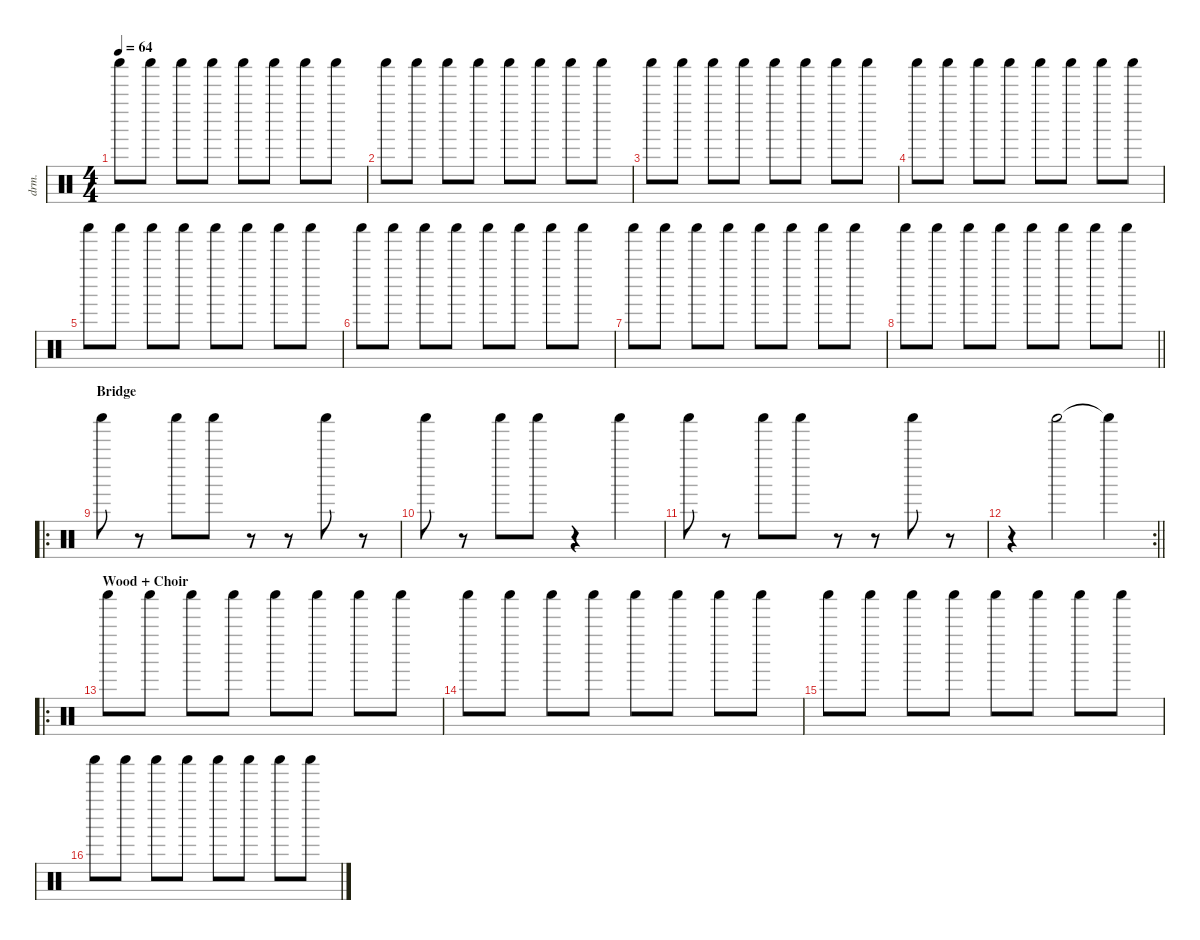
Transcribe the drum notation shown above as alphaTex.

\defaultSystemsLayout 4
\hideDynamics
\bracketExtendMode nobrackets
\track ("Percussions" "drm.") {instrument percussion}
\staff {score}
\articulation defaults
\ts (4 4)
\tempo 64
\clef neutral
\ks c "Shaker (hit)".8{dy f} "Shaker (hit)".8 "Shaker (hit)".8 "Shaker (hit)".8 "Shaker (hit)".8 "Shaker (hit)".8 "Shaker (hit)".8 "Shaker (hit)".8
|
"Shaker (hit)".8 "Shaker (hit)".8 "Shaker (hit)".8 "Shaker (hit)".8 "Shaker (hit)".8 "Shaker (hit)".8 "Shaker (hit)".8 "Shaker (hit)".8 |
"Shaker (hit)".8 "Shaker (hit)".8 "Shaker (hit)".8 "Shaker (hit)".8 "Shaker (hit)".8 "Shaker (hit)".8 "Shaker (hit)".8 "Shaker (hit)".8 |
"Shaker (hit)".8 "Shaker (hit)".8 "Shaker (hit)".8 "Shaker (hit)".8 "Shaker (hit)".8 "Shaker (hit)".8 "Shaker (hit)".8 "Shaker (hit)".8 |
"Shaker (hit)".8 "Shaker (hit)".8 "Shaker (hit)".8 "Shaker (hit)".8 "Shaker (hit)".8 "Shaker (hit)".8 "Shaker (hit)".8 "Shaker (hit)".8 |
"Shaker (hit)".8 "Shaker (hit)".8 "Shaker (hit)".8 "Shaker (hit)".8 "Shaker (hit)".8 "Shaker (hit)".8 "Shaker (hit)".8 "Shaker (hit)".8 |
"Shaker (hit)".8 "Shaker (hit)".8 "Shaker (hit)".8 "Shaker (hit)".8 "Shaker (hit)".8 "Shaker (hit)".8 "Shaker (hit)".8 "Shaker (hit)".8 |
\barLineRight lightlight "Shaker (hit)".8 "Shaker (hit)".8 "Shaker (hit)".8 "Shaker (hit)".8 "Shaker (hit)".8 "Shaker (hit)".8 "Shaker (hit)".8 "Shaker (hit)".8
|
\ro
\section ("" "Bridge")
"Shaker (hit)".8 r.8 "Shaker (hit)".8 "Shaker (hit)".8 r.8 r.8 "Shaker (hit)".8 r.8 |
"Shaker (hit)".8 r.8 "Shaker (hit)".8 "Shaker (hit)".8 r.4 "Shaker (hit)".4{dy mp} |
"Shaker (hit)".8{dy f} r.8 "Shaker (hit)".8 "Shaker (hit)".8 r.8 r.8 "Shaker (hit)".8 r.8 |
\rc 2
\barLineRight lightlight
r.4 "Shaker (hit)".2{dy mf} "Shaker (hit)"{t}.4{dy f} |
\ro
\section ("" "Wood + Choir")
"Shaker (hit)".8 "Shaker (hit)".8 "Shaker (hit)".8 "Shaker (hit)".8 "Shaker (hit)".8 "Shaker (hit)".8 "Shaker (hit)".8 "Shaker (hit)".8 |
"Shaker (hit)".8 "Shaker (hit)".8 "Shaker (hit)".8 "Shaker (hit)".8 "Shaker (hit)".8 "Shaker (hit)".8 "Shaker (hit)".8 "Shaker (hit)".8 |
"Shaker (hit)".8 "Shaker (hit)".8 "Shaker (hit)".8 "Shaker (hit)".8 "Shaker (hit)".8 "Shaker (hit)".8 "Shaker (hit)".8 "Shaker (hit)".8 |
"Shaker (hit)".8 "Shaker (hit)".8 "Shaker (hit)".8 "Shaker (hit)".8 "Shaker (hit)".8 "Shaker (hit)".8 "Shaker (hit)".8 "Shaker (hit)".8
